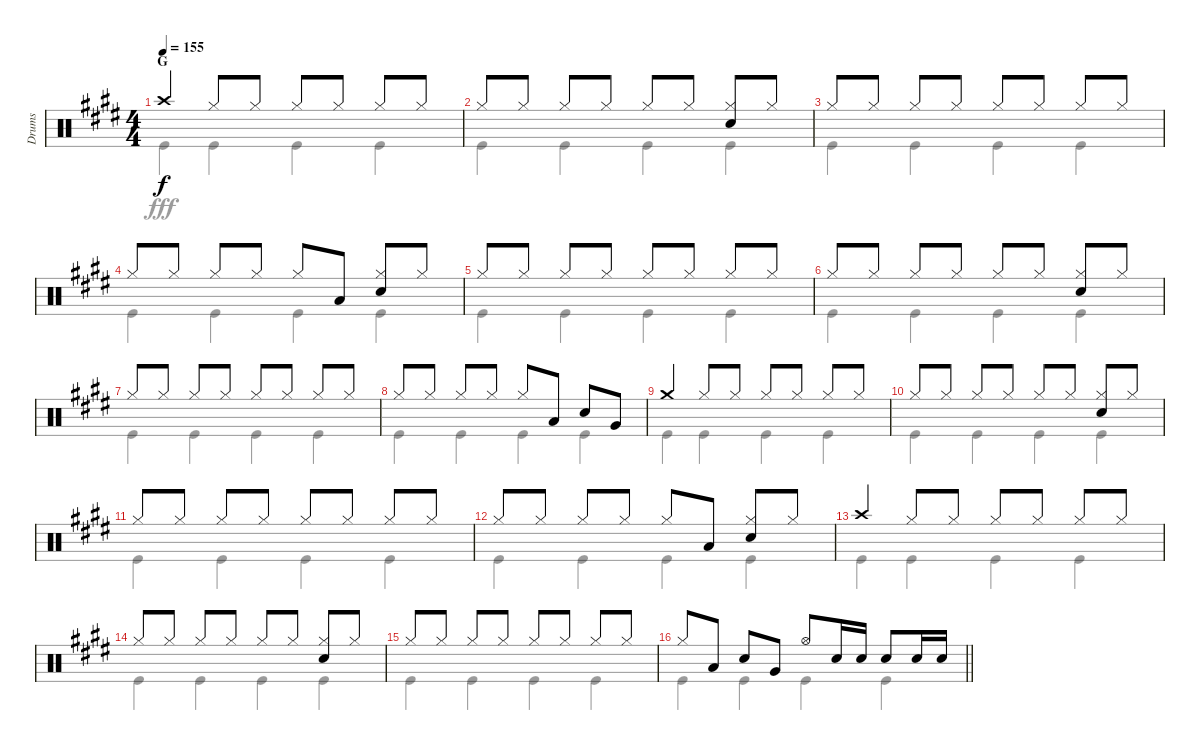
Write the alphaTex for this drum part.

\track ("Drums" "Drums") {instrument percussion}
\staff {score}
\articulation defaults
\voice
\ts (4 4)
\section ("" "G")
\tempo 155
\clef neutral
\ks e "Crash high (hit)".4{dy f} "Hi-Hat (closed)".8 "Hi-Hat (closed)".8 "Hi-Hat (closed)".8 "Hi-Hat (closed)".8 "Hi-Hat (closed)".8 "Hi-Hat (closed)".8
|
"Hi-Hat (closed)".8 "Hi-Hat (closed)".8 "Hi-Hat (closed)".8 "Hi-Hat (closed)".8 "Hi-Hat (closed)".8 "Hi-Hat (closed)".8 ("Hi-Hat (closed)" "Snare (hit) 2").8 "Hi-Hat (closed)".8 |
"Hi-Hat (closed)".8 "Hi-Hat (closed)".8 "Hi-Hat (closed)".8 "Hi-Hat (closed)".8 "Hi-Hat (closed)".8 "Hi-Hat (closed)".8 "Hi-Hat (closed)".8 "Hi-Hat (closed)".8 |
"Hi-Hat (closed)".8 "Hi-Hat (closed)".8 "Hi-Hat (closed)".8 "Hi-Hat (closed)".8 "Hi-Hat (closed)".8 "Low Tom (hit)".8 ("Hi-Hat (closed)" "Snare (hit) 2").8 "Hi-Hat (closed)".8 |
"Hi-Hat (closed)".8 "Hi-Hat (closed)".8 "Hi-Hat (closed)".8 "Hi-Hat (closed)".8 "Hi-Hat (closed)".8 "Hi-Hat (closed)".8 "Hi-Hat (closed)".8 "Hi-Hat (closed)".8 |
"Hi-Hat (closed)".8 "Hi-Hat (closed)".8 "Hi-Hat (closed)".8 "Hi-Hat (closed)".8 "Hi-Hat (closed)".8 "Hi-Hat (closed)".8 ("Hi-Hat (closed)" "Snare (hit) 2").8 "Hi-Hat (closed)".8 |
"Hi-Hat (closed)".8 "Hi-Hat (closed)".8 "Hi-Hat (closed)".8 "Hi-Hat (closed)".8 "Hi-Hat (closed)".8 "Hi-Hat (closed)".8 "Hi-Hat (closed)".8 "Hi-Hat (closed)".8 |
"Hi-Hat (closed)".8 "Hi-Hat (closed)".8 "Hi-Hat (closed)".8 "Hi-Hat (closed)".8 "Hi-Hat (closed)".8 "Low Tom (hit)".8 "Snare (hit) 2".8 "Very Low Tom (hit)".8 |
"Crash medium (hit)".4 "Hi-Hat (closed)".8 "Hi-Hat (closed)".8 "Hi-Hat (closed)".8 "Hi-Hat (closed)".8 "Hi-Hat (closed)".8 "Hi-Hat (closed)".8 |
"Hi-Hat (closed)".8 "Hi-Hat (closed)".8 "Hi-Hat (closed)".8 "Hi-Hat (closed)".8 "Hi-Hat (closed)".8 "Hi-Hat (closed)".8 ("Hi-Hat (closed)" "Snare (hit) 2").8 "Hi-Hat (closed)".8 |
"Hi-Hat (closed)".8 "Hi-Hat (closed)".8 "Hi-Hat (closed)".8 "Hi-Hat (closed)".8 "Hi-Hat (closed)".8 "Hi-Hat (closed)".8 "Hi-Hat (closed)".8 "Hi-Hat (closed)".8 |
"Hi-Hat (closed)".8 "Hi-Hat (closed)".8 "Hi-Hat (closed)".8 "Hi-Hat (closed)".8 "Hi-Hat (closed)".8 "Low Tom (hit)".8 ("Hi-Hat (closed)" "Snare (hit) 2").8 "Hi-Hat (closed)".8 |
"Crash high (hit)".4 "Hi-Hat (closed)".8 "Hi-Hat (closed)".8 "Hi-Hat (closed)".8 "Hi-Hat (closed)".8 "Hi-Hat (closed)".8 "Hi-Hat (closed)".8 |
"Hi-Hat (closed)".8 "Hi-Hat (closed)".8 "Hi-Hat (closed)".8 "Hi-Hat (closed)".8 "Hi-Hat (closed)".8 "Hi-Hat (closed)".8 ("Hi-Hat (closed)" "Snare (hit) 2").8 "Hi-Hat (closed)".8 |
"Hi-Hat (closed)".8 "Hi-Hat (closed)".8 "Hi-Hat (closed)".8 "Hi-Hat (closed)".8 "Hi-Hat (closed)".8 "Hi-Hat (closed)".8 "Hi-Hat (closed)".8 "Hi-Hat (closed)".8 |
\barLineRight lightlight "Hi-Hat (closed)".8 "Low Tom (hit)".8 "Snare (hit) 2".8 "Very Low Tom (hit)".8 "Hi-Hat (open)".8 "Snare (hit) 2".16 "Snare (hit) 2".16 "Snare (hit) 2".8 "Snare (hit) 2".16 "Snare (hit) 2".16
\voice
\clef neutral
\ottava regular
\simile none
\ks e "Kick (hit)".4{dy fff} "Kick (hit)".4 "Kick (hit)".4 "Kick (hit)".4
|
"Kick (hit)".4 "Kick (hit)".4 "Kick (hit)".4 "Kick (hit)".4 |
"Kick (hit)".4 "Kick (hit)".4 "Kick (hit)".4 "Kick (hit)".4 |
"Kick (hit)".4 "Kick (hit)".4 "Kick (hit)".4 "Kick (hit)".4 |
"Kick (hit)".4 "Kick (hit)".4 "Kick (hit)".4 "Kick (hit)".4 |
"Kick (hit)".4 "Kick (hit)".4 "Kick (hit)".4 "Kick (hit)".4 |
"Kick (hit)".4 "Kick (hit)".4 "Kick (hit)".4 "Kick (hit)".4 |
"Kick (hit)".4 "Kick (hit)".4 "Kick (hit)".4 "Kick (hit)".4 |
"Kick (hit)".4 "Kick (hit)".4 "Kick (hit)".4 "Kick (hit)".4 |
"Kick (hit)".4 "Kick (hit)".4 "Kick (hit)".4 "Kick (hit)".4 |
"Kick (hit)".4 "Kick (hit)".4 "Kick (hit)".4 "Kick (hit)".4 |
"Kick (hit)".4 "Kick (hit)".4 "Kick (hit)".4 "Kick (hit)".4 |
"Kick (hit)".4 "Kick (hit)".4 "Kick (hit)".4 "Kick (hit)".4 |
"Kick (hit)".4 "Kick (hit)".4 "Kick (hit)".4 "Kick (hit)".4 |
"Kick (hit)".4 "Kick (hit)".4 "Kick (hit)".4 "Kick (hit)".4 |
\barLineRight lightlight "Kick (hit)".4 "Kick (hit)".4 "Kick (hit)".4 "Kick (hit)".4
